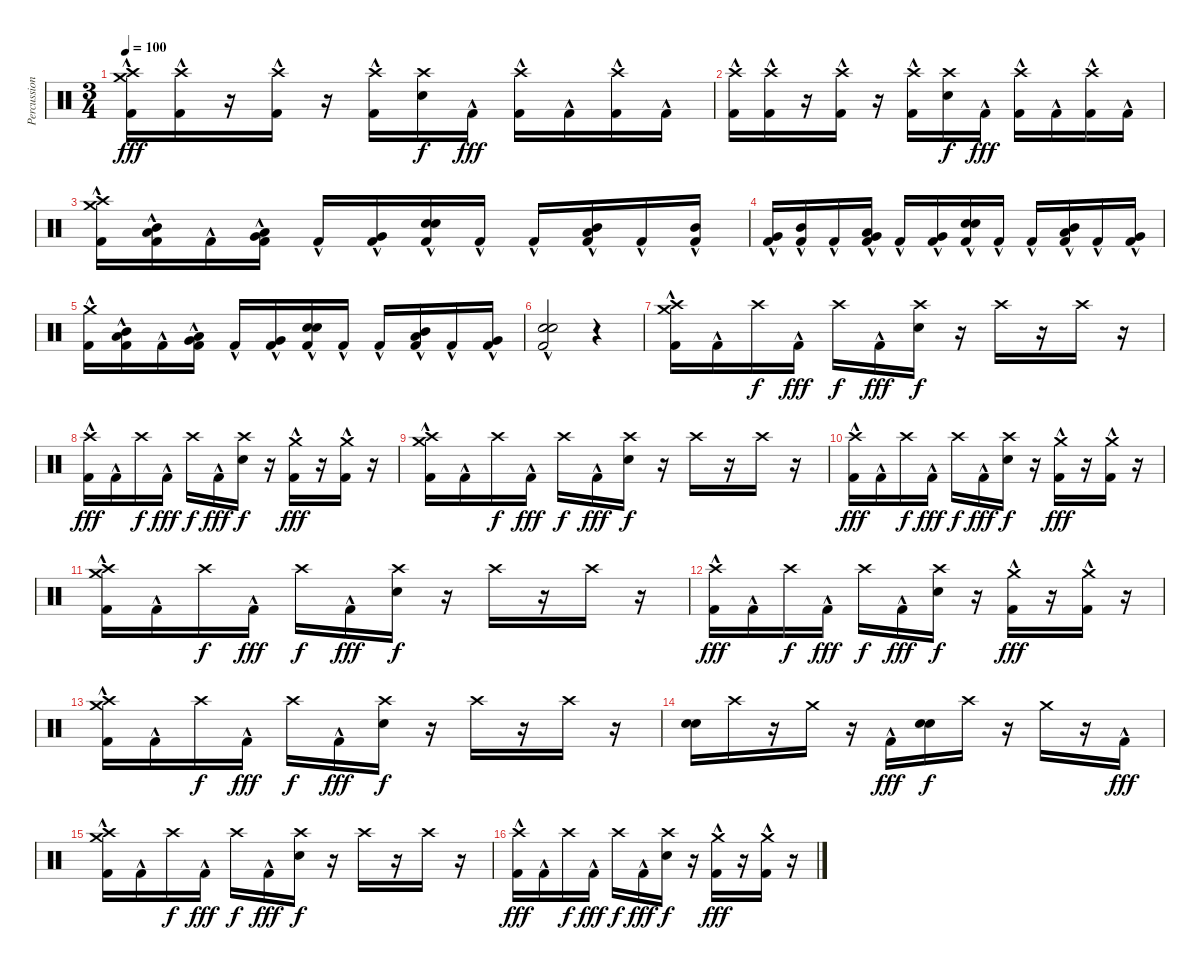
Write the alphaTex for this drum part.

\track ("Percussion" "Percussion") {instrument percussion}
\staff {score}
\articulation defaults
\ts (3 4)
\tempo 100
\clef neutral
\ks c
("Kick (hit) 2"{hac} "Crash medium (hit)" "Crash high (hit)").16{dy fff} ("Kick (hit) 2"{hac} "Crash high (hit)").16 r.16 ("Kick (hit) 2"{hac} "Crash high (hit)").16 r.16 ("Kick (hit) 2"{hac} "Crash high (hit)").16 ("Electric Snare (hit)" "Crash high (hit)").16{dy f} "Kick (hit) 2"{hac}.16{dy fff} ("Kick (hit) 2"{hac} "Crash high (hit)").16 "Kick (hit) 2"{hac}.16 ("Kick (hit) 2"{hac} "Crash high (hit)").16 "Kick (hit) 2"{hac}.16 |
("Kick (hit) 2"{hac} "Crash high (hit)").16 ("Kick (hit) 2"{hac} "Crash high (hit)").16 r.16 ("Kick (hit) 2"{hac} "Crash high (hit)").16 r.16 ("Kick (hit) 2"{hac} "Crash high (hit)").16 ("Electric Snare (hit)" "Crash high (hit)").16{dy f} "Kick (hit) 2"{hac}.16{dy fff} ("Kick (hit) 2"{hac} "Crash high (hit)").16 "Kick (hit) 2"{hac}.16 ("Kick (hit) 2"{hac} "Crash high (hit)").16 "Kick (hit) 2"{hac}.16 |
("Kick (hit) 2"{hac} "Crash medium (hit)" "Crash high (hit)").16 ("Kick (hit) 2"{hac} "Low Tom (hit)" "Mid Tom (hit)").16 "Kick (hit) 2"{hac}.16 ("Kick (hit) 2"{hac} "Very Low Tom (hit)" "Low Tom (hit)").16 "Kick (hit) 2"{hac}.16 ("Kick (hit) 2"{hac} "Very Low Tom (hit)").16 ("Kick (hit) 2"{hac} "Electric Snare (hit)" "Electric Snare (hit)").16 "Kick (hit) 2"{hac}.16 "Kick (hit) 2"{hac}.16 ("Kick (hit) 2"{hac} "Low Tom (hit)" "Mid Tom (hit)").16 "Kick (hit) 2"{hac}.16 ("Kick (hit) 2"{hac} "Mid Tom (hit)").16 |
("Kick (hit) 2"{hac} "Very Low Tom (hit)").16 ("Kick (hit) 2"{hac} "Mid Tom (hit)").16 "Kick (hit) 2"{hac}.16 ("Kick (hit) 2"{hac} "Very Low Tom (hit)" "Low Tom (hit)").16 "Kick (hit) 2"{hac}.16 ("Kick (hit) 2"{hac} "Very Low Tom (hit)").16 ("Kick (hit) 2"{hac} "Electric Snare (hit)" "Electric Snare (hit)").16 "Kick (hit) 2"{hac}.16 "Kick (hit) 2"{hac}.16 ("Kick (hit) 2"{hac} "Low Tom (hit)" "Mid Tom (hit)").16 "Kick (hit) 2"{hac}.16 ("Kick (hit) 2"{hac} "Very Low Tom (hit)").16 |
("Kick (hit) 2"{hac} "Crash medium (hit)").16 ("Kick (hit) 2"{hac} "Low Tom (hit)" "Mid Tom (hit)").16 "Kick (hit) 2"{hac}.16 ("Kick (hit) 2"{hac} "Very Low Tom (hit)" "Low Tom (hit)").16 "Kick (hit) 2"{hac}.16 ("Kick (hit) 2"{hac} "Very Low Tom (hit)").16 ("Kick (hit) 2"{hac} "Electric Snare (hit)" "Electric Snare (hit)").16 "Kick (hit) 2"{hac}.16 "Kick (hit) 2"{hac}.16 ("Kick (hit) 2"{hac} "Low Tom (hit)" "Mid Tom (hit)").16 "Kick (hit) 2"{hac}.16 ("Kick (hit) 2"{hac} "Very Low Tom (hit)").16 |
("Kick (hit) 2"{hac} "Electric Snare (hit)" "Electric Snare (hit)").2 r.4 |
("Kick (hit) 2"{hac} "Crash high (hit)" "Crash medium (hit)").16 "Kick (hit) 2"{hac}.16 "Crash high (hit)".16{dy f} "Kick (hit) 2"{hac}.16{dy fff} "Crash high (hit)".16{dy f} "Kick (hit) 2"{hac}.16{dy fff} ("Electric Snare (hit)" "Crash high (hit)").16{dy f} r.16 "Crash high (hit)".16 r.16 "Crash high (hit)".16 r.16 |
("Kick (hit) 2"{hac} "Crash high (hit)").16{dy fff} "Kick (hit) 2"{hac}.16 "Crash high (hit)".16{dy f} "Kick (hit) 2"{hac}.16{dy fff} "Crash high (hit)".16{dy f} "Kick (hit) 2"{hac}.16{dy fff} ("Electric Snare (hit)" "Crash high (hit)").16{dy f} r.16 ("Kick (hit) 2"{hac} "Crash medium (hit)").16{dy fff} r.16 ("Kick (hit) 2"{hac} "Crash medium (hit)").16 r.16 |
("Kick (hit) 2"{hac} "Crash high (hit)" "Crash medium (hit)").16 "Kick (hit) 2"{hac}.16 "Crash high (hit)".16{dy f} "Kick (hit) 2"{hac}.16{dy fff} "Crash high (hit)".16{dy f} "Kick (hit) 2"{hac}.16{dy fff} ("Electric Snare (hit)" "Crash high (hit)").16{dy f} r.16 "Crash high (hit)".16 r.16 "Crash high (hit)".16 r.16 |
("Kick (hit) 2"{hac} "Crash high (hit)").16{dy fff} "Kick (hit) 2"{hac}.16 "Crash high (hit)".16{dy f} "Kick (hit) 2"{hac}.16{dy fff} "Crash high (hit)".16{dy f} "Kick (hit) 2"{hac}.16{dy fff} ("Electric Snare (hit)" "Crash high (hit)").16{dy f} r.16 ("Kick (hit) 2"{hac} "Crash medium (hit)").16{dy fff} r.16 ("Kick (hit) 2"{hac} "Crash medium (hit)").16 r.16 |
("Kick (hit) 2"{hac} "Crash high (hit)" "Crash medium (hit)").16 "Kick (hit) 2"{hac}.16 "Crash high (hit)".16{dy f} "Kick (hit) 2"{hac}.16{dy fff} "Crash high (hit)".16{dy f} "Kick (hit) 2"{hac}.16{dy fff} ("Electric Snare (hit)" "Crash high (hit)").16{dy f} r.16 "Crash high (hit)".16 r.16 "Crash high (hit)".16 r.16 |
("Kick (hit) 2"{hac} "Crash high (hit)").16{dy fff} "Kick (hit) 2"{hac}.16 "Crash high (hit)".16{dy f} "Kick (hit) 2"{hac}.16{dy fff} "Crash high (hit)".16{dy f} "Kick (hit) 2"{hac}.16{dy fff} ("Electric Snare (hit)" "Crash high (hit)").16{dy f} r.16 ("Kick (hit) 2"{hac} "Crash medium (hit)").16{dy fff} r.16 ("Kick (hit) 2"{hac} "Crash medium (hit)").16 r.16 |
("Kick (hit) 2"{hac} "Crash high (hit)" "Crash medium (hit)").16 "Kick (hit) 2"{hac}.16 "Crash high (hit)".16{dy f} "Kick (hit) 2"{hac}.16{dy fff} "Crash high (hit)".16{dy f} "Kick (hit) 2"{hac}.16{dy fff} ("Electric Snare (hit)" "Crash high (hit)").16{dy f} r.16 "Crash high (hit)".16 r.16 "Crash high (hit)".16 r.16 |
("Electric Snare (hit)" "Electric Snare (hit)").16 "Crash high (hit)".16 r.16 "Crash medium (hit)".16 r.16 "Kick (hit) 2"{hac}.16{dy fff} ("Electric Snare (hit)" "Electric Snare (hit)").16{dy f} "Crash high (hit)".16 r.16 "Crash medium (hit)".16 r.16 "Kick (hit) 2"{hac}.16{dy fff} |
("Kick (hit) 2"{hac} "Crash high (hit)" "Crash medium (hit)").16 "Kick (hit) 2"{hac}.16 "Crash high (hit)".16{dy f} "Kick (hit) 2"{hac}.16{dy fff} "Crash high (hit)".16{dy f} "Kick (hit) 2"{hac}.16{dy fff} ("Electric Snare (hit)" "Crash high (hit)").16{dy f} r.16 "Crash high (hit)".16 r.16 "Crash high (hit)".16 r.16 |
("Kick (hit) 2"{hac} "Crash high (hit)").16{dy fff} "Kick (hit) 2"{hac}.16 "Crash high (hit)".16{dy f} "Kick (hit) 2"{hac}.16{dy fff} "Crash high (hit)".16{dy f} "Kick (hit) 2"{hac}.16{dy fff} ("Electric Snare (hit)" "Crash high (hit)").16{dy f} r.16 ("Kick (hit) 2"{hac} "Crash medium (hit)").16{dy fff} r.16 ("Kick (hit) 2"{hac} "Crash medium (hit)").16 r.16
